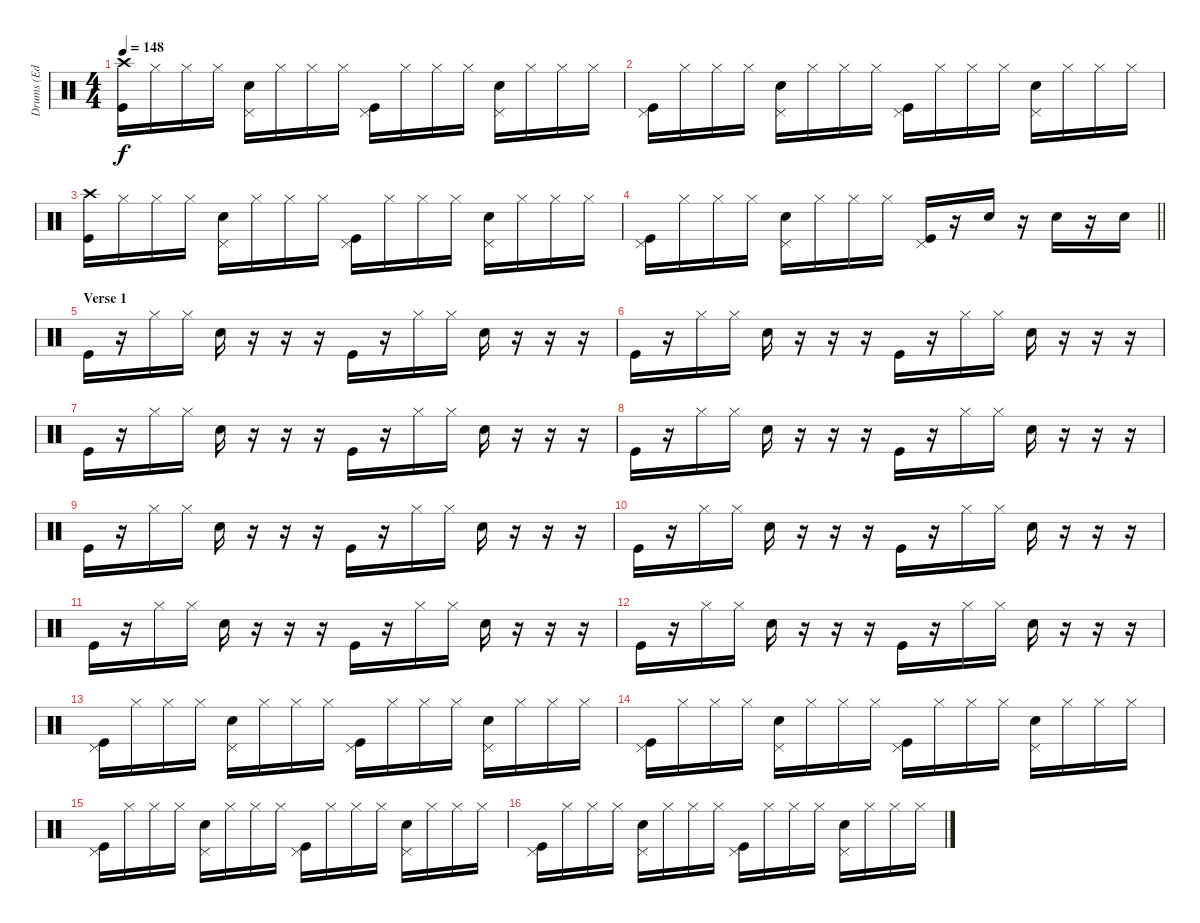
\track ("Drums (Ed Lay)" "Drums (Ed ") {instrument percussion}
\staff {score}
\articulation defaults
\ts (4 4)
\tempo 148
\clef neutral
\ks c
("Crash high (hit)" "Kick (hit)").16{dy f} "Hi-Hat (closed)".16 "Hi-Hat (closed)".16 "Hi-Hat (closed)".16 ("Pedal Hi-Hat (hit)" "Electric Snare (hit)").16 "Hi-Hat (closed)".16 "Hi-Hat (closed)".16 "Hi-Hat (closed)".16 ("Pedal Hi-Hat (hit)" "Kick (hit)").16 "Hi-Hat (closed)".16 "Hi-Hat (closed)".16 "Hi-Hat (closed)".16 ("Pedal Hi-Hat (hit)" "Electric Snare (hit)").16 "Hi-Hat (closed)".16 "Hi-Hat (closed)".16 "Hi-Hat (closed)".16 |
("Pedal Hi-Hat (hit)" "Kick (hit)").16 "Hi-Hat (closed)".16 "Hi-Hat (closed)".16 "Hi-Hat (closed)".16 ("Pedal Hi-Hat (hit)" "Electric Snare (hit)").16 "Hi-Hat (closed)".16 "Hi-Hat (closed)".16 "Hi-Hat (closed)".16 ("Pedal Hi-Hat (hit)" "Kick (hit)").16 "Hi-Hat (closed)".16 "Hi-Hat (closed)".16 "Hi-Hat (closed)".16 ("Pedal Hi-Hat (hit)" "Electric Snare (hit)").16 "Hi-Hat (closed)".16 "Hi-Hat (closed)".16 "Hi-Hat (closed)".16 |
("Crash high (hit)" "Kick (hit)").16 "Hi-Hat (closed)".16 "Hi-Hat (closed)".16 "Hi-Hat (closed)".16 ("Pedal Hi-Hat (hit)" "Electric Snare (hit)").16 "Hi-Hat (closed)".16 "Hi-Hat (closed)".16 "Hi-Hat (closed)".16 ("Pedal Hi-Hat (hit)" "Kick (hit)").16 "Hi-Hat (closed)".16 "Hi-Hat (closed)".16 "Hi-Hat (closed)".16 ("Pedal Hi-Hat (hit)" "Electric Snare (hit)").16 "Hi-Hat (closed)".16 "Hi-Hat (closed)".16 "Hi-Hat (closed)".16 |
\barLineRight lightlight
("Pedal Hi-Hat (hit)" "Kick (hit)").16 "Hi-Hat (closed)".16 "Hi-Hat (closed)".16 "Hi-Hat (closed)".16 ("Pedal Hi-Hat (hit)" "Electric Snare (hit)").16 "Hi-Hat (closed)".16 "Hi-Hat (closed)".16 "Hi-Hat (closed)".16 ("Pedal Hi-Hat (hit)" "Kick (hit)").16 r.16 "Electric Snare (hit)".16 r.16 "Electric Snare (hit)".16 r.16 "Electric Snare (hit)".16 |
\section ("" "Verse 1")
"Kick (hit)".16 r.16 "Hi-Hat (closed)".16 "Hi-Hat (closed)".16 "Electric Snare (hit)".16 r.16 r.16 r.16 "Kick (hit)".16 r.16 "Hi-Hat (closed)".16 "Hi-Hat (closed)".16 "Electric Snare (hit)".16 r.16 r.16 r.16 |
"Kick (hit)".16 r.16 "Hi-Hat (closed)".16 "Hi-Hat (closed)".16 "Electric Snare (hit)".16 r.16 r.16 r.16 "Kick (hit)".16 r.16 "Hi-Hat (closed)".16 "Hi-Hat (closed)".16 "Electric Snare (hit)".16 r.16 r.16 r.16 |
"Kick (hit)".16 r.16 "Hi-Hat (closed)".16 "Hi-Hat (closed)".16 "Electric Snare (hit)".16 r.16 r.16 r.16 "Kick (hit)".16 r.16 "Hi-Hat (closed)".16 "Hi-Hat (closed)".16 "Electric Snare (hit)".16 r.16 r.16 r.16 |
"Kick (hit)".16 r.16 "Hi-Hat (closed)".16 "Hi-Hat (closed)".16 "Electric Snare (hit)".16 r.16 r.16 r.16 "Kick (hit)".16 r.16 "Hi-Hat (closed)".16 "Hi-Hat (closed)".16 "Electric Snare (hit)".16 r.16 r.16 r.16 |
"Kick (hit)".16 r.16 "Hi-Hat (closed)".16 "Hi-Hat (closed)".16 "Electric Snare (hit)".16 r.16 r.16 r.16 "Kick (hit)".16 r.16 "Hi-Hat (closed)".16 "Hi-Hat (closed)".16 "Electric Snare (hit)".16 r.16 r.16 r.16 |
"Kick (hit)".16 r.16 "Hi-Hat (closed)".16 "Hi-Hat (closed)".16 "Electric Snare (hit)".16 r.16 r.16 r.16 "Kick (hit)".16 r.16 "Hi-Hat (closed)".16 "Hi-Hat (closed)".16 "Electric Snare (hit)".16 r.16 r.16 r.16 |
"Kick (hit)".16 r.16 "Hi-Hat (closed)".16 "Hi-Hat (closed)".16 "Electric Snare (hit)".16 r.16 r.16 r.16 "Kick (hit)".16 r.16 "Hi-Hat (closed)".16 "Hi-Hat (closed)".16 "Electric Snare (hit)".16 r.16 r.16 r.16 |
"Kick (hit)".16 r.16 "Hi-Hat (closed)".16 "Hi-Hat (closed)".16 "Electric Snare (hit)".16 r.16 r.16 r.16 "Kick (hit)".16 r.16 "Hi-Hat (closed)".16 "Hi-Hat (closed)".16 "Electric Snare (hit)".16 r.16 r.16 r.16 |
("Pedal Hi-Hat (hit)" "Kick (hit)").16 "Hi-Hat (closed)".16 "Hi-Hat (closed)".16 "Hi-Hat (closed)".16 ("Pedal Hi-Hat (hit)" "Electric Snare (hit)").16 "Hi-Hat (closed)".16 "Hi-Hat (closed)".16 "Hi-Hat (closed)".16 ("Pedal Hi-Hat (hit)" "Kick (hit)").16 "Hi-Hat (closed)".16 "Hi-Hat (closed)".16 "Hi-Hat (closed)".16 ("Pedal Hi-Hat (hit)" "Electric Snare (hit)").16 "Hi-Hat (closed)".16 "Hi-Hat (closed)".16 "Hi-Hat (closed)".16 |
("Pedal Hi-Hat (hit)" "Kick (hit)").16 "Hi-Hat (closed)".16 "Hi-Hat (closed)".16 "Hi-Hat (closed)".16 ("Pedal Hi-Hat (hit)" "Electric Snare (hit)").16 "Hi-Hat (closed)".16 "Hi-Hat (closed)".16 "Hi-Hat (closed)".16 ("Pedal Hi-Hat (hit)" "Kick (hit)").16 "Hi-Hat (closed)".16 "Hi-Hat (closed)".16 "Hi-Hat (closed)".16 ("Pedal Hi-Hat (hit)" "Electric Snare (hit)").16 "Hi-Hat (closed)".16 "Hi-Hat (closed)".16 "Hi-Hat (closed)".16 |
("Pedal Hi-Hat (hit)" "Kick (hit)").16 "Hi-Hat (closed)".16 "Hi-Hat (closed)".16 "Hi-Hat (closed)".16 ("Pedal Hi-Hat (hit)" "Electric Snare (hit)").16 "Hi-Hat (closed)".16 "Hi-Hat (closed)".16 "Hi-Hat (closed)".16 ("Pedal Hi-Hat (hit)" "Kick (hit)").16 "Hi-Hat (closed)".16 "Hi-Hat (closed)".16 "Hi-Hat (closed)".16 ("Pedal Hi-Hat (hit)" "Electric Snare (hit)").16 "Hi-Hat (closed)".16 "Hi-Hat (closed)".16 "Hi-Hat (closed)".16 |
("Pedal Hi-Hat (hit)" "Kick (hit)").16 "Hi-Hat (closed)".16 "Hi-Hat (closed)".16 "Hi-Hat (closed)".16 ("Pedal Hi-Hat (hit)" "Electric Snare (hit)").16 "Hi-Hat (closed)".16 "Hi-Hat (closed)".16 "Hi-Hat (closed)".16 ("Pedal Hi-Hat (hit)" "Kick (hit)").16 "Hi-Hat (closed)".16 "Hi-Hat (closed)".16 "Hi-Hat (closed)".16 ("Pedal Hi-Hat (hit)" "Electric Snare (hit)").16 "Hi-Hat (closed)".16 "Hi-Hat (closed)".16 "Hi-Hat (closed)".16
